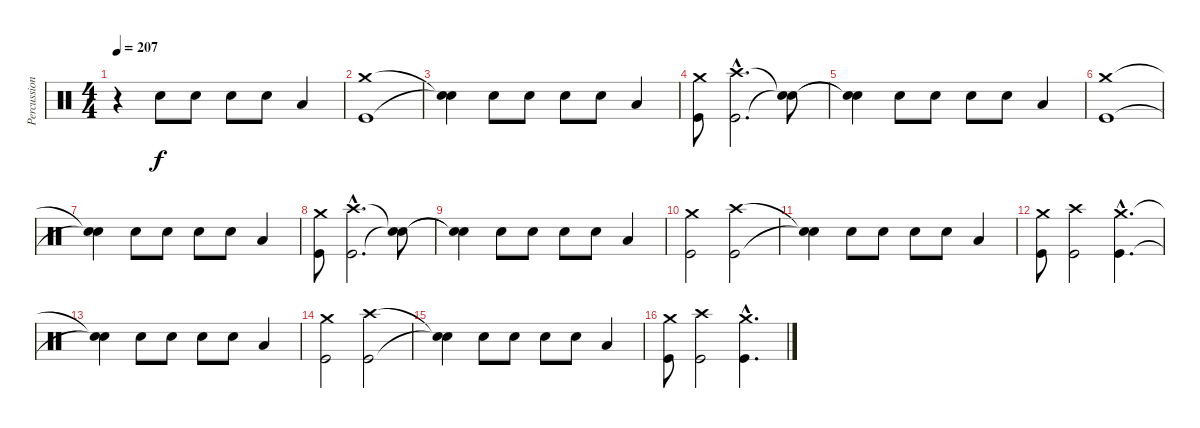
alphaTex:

\track ("Percussion" "Percussion") {instrument percussion}
\staff {score}
\articulation defaults
\ts (4 4)
\tempo 207
\clef neutral
\ks c
r.4{dy f} "Electric Snare (hit)".8 "Electric Snare (hit)".8 "Electric Snare (hit)".8 "Electric Snare (hit)".8 "Low Floor Tom (hit)".4 |
("Crash medium (hit)" "Kick (hit)").1 |
("Snare (hit)"{t} "Snare (hit)"{t}).4 "Electric Snare (hit)".8 "Electric Snare (hit)".8 "Electric Snare (hit)".8 "Electric Snare (hit)".8 "Low Floor Tom (hit)".4 |
("Crash medium (hit)" "Kick (hit)").8 ("Crash high (hit)"{hac} "Kick (hit)"{hac}).2{d} ("Snare (hit)"{t} "Snare (hit)"{t}).8 |
("Snare (hit)"{t} "Snare (hit)"{t}).4 "Electric Snare (hit)".8 "Electric Snare (hit)".8 "Electric Snare (hit)".8 "Electric Snare (hit)".8 "Low Floor Tom (hit)".4 |
("Crash medium (hit)" "Kick (hit)").1 |
("Snare (hit)"{t} "Snare (hit)"{t}).4 "Electric Snare (hit)".8 "Electric Snare (hit)".8 "Electric Snare (hit)".8 "Electric Snare (hit)".8 "Low Floor Tom (hit)".4 |
("Crash medium (hit)" "Kick (hit)").8 ("Crash high (hit)"{hac} "Kick (hit)"{hac}).2{d} ("Snare (hit)"{t} "Snare (hit)"{t}).8 |
("Snare (hit)"{t} "Snare (hit)"{t}).4 "Electric Snare (hit)".8 "Electric Snare (hit)".8 "Electric Snare (hit)".8 "Electric Snare (hit)".8 "Low Floor Tom (hit)".4 |
("Crash medium (hit)" "Kick (hit)").2 ("Crash high (hit)" "Kick (hit)").2 |
("Snare (hit)"{t} "Snare (hit)"{t}).4 "Electric Snare (hit)".8 "Electric Snare (hit)".8 "Electric Snare (hit)".8 "Electric Snare (hit)".8 "Low Floor Tom (hit)".4 |
("Crash medium (hit)" "Kick (hit)").8 ("Crash high (hit)" "Kick (hit)").2 ("Crash medium (hit)"{hac} "Kick (hit)"{hac}).4{d} |
("Snare (hit)"{t} "Snare (hit)"{t}).4 "Electric Snare (hit)".8 "Electric Snare (hit)".8 "Electric Snare (hit)".8 "Electric Snare (hit)".8 "Low Floor Tom (hit)".4 |
("Crash medium (hit)" "Kick (hit)").2 ("Crash high (hit)" "Kick (hit)").2 |
("Snare (hit)"{t} "Snare (hit)"{t}).4 "Electric Snare (hit)".8 "Electric Snare (hit)".8 "Electric Snare (hit)".8 "Electric Snare (hit)".8 "Low Floor Tom (hit)".4 |
("Crash medium (hit)" "Kick (hit)").8 ("Crash high (hit)" "Kick (hit)").2 ("Crash medium (hit)"{hac} "Kick (hit)"{hac}).4{d}
